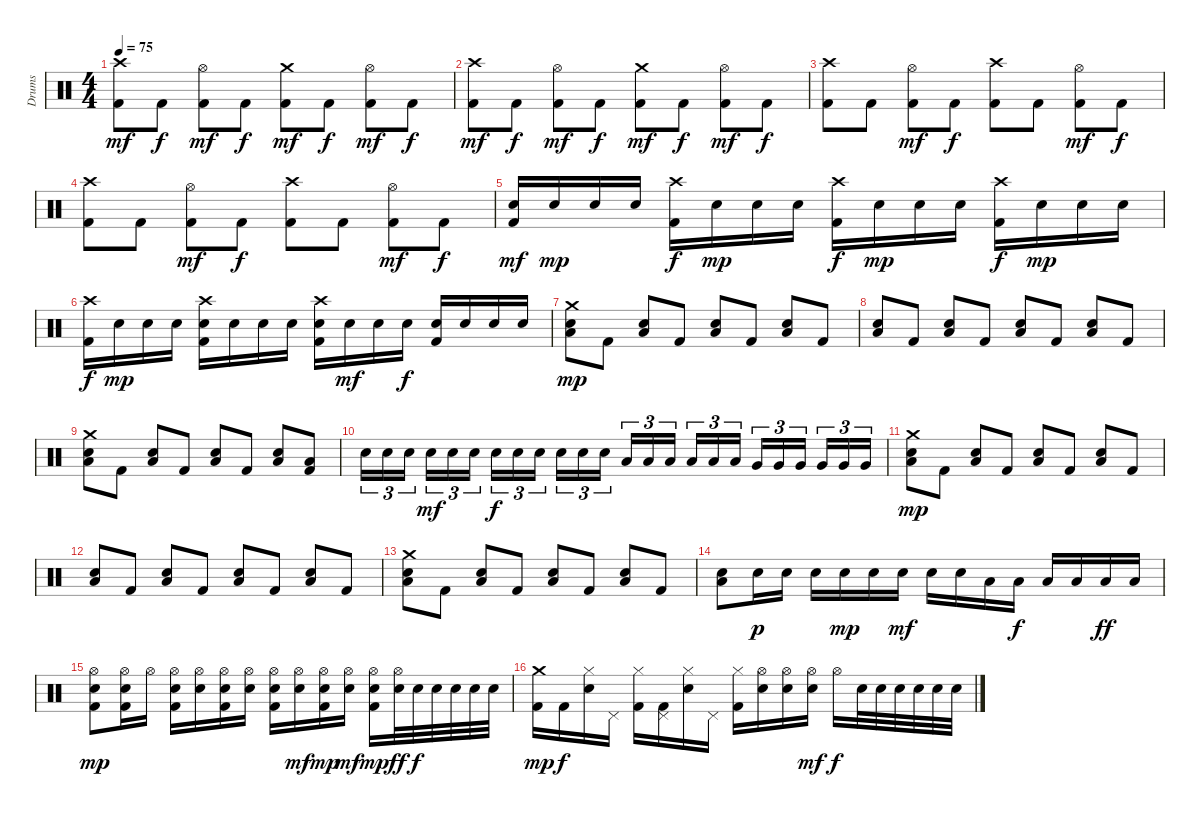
\track ("Drums" "Drums") {instrument percussion}
\staff {score}
\articulation defaults
\ts (4 4)
\tempo 75
\clef neutral
\ks c
("Crash high (hit)" "Kick (hit) 2").8{dy mf} "Kick (hit) 2".8{dy f} ("Hi-Hat (open)" "Kick (hit) 2").8{dy mf} "Kick (hit) 2".8{dy f} ("Crash medium (hit)" "Kick (hit) 2").8{dy mf} "Kick (hit) 2".8{dy f} ("Hi-Hat (open)" "Kick (hit) 2").8{dy mf} "Kick (hit) 2".8{dy f} |
("Crash high (hit)" "Kick (hit) 2").8{dy mf} "Kick (hit) 2".8{dy f} ("Hi-Hat (open)" "Kick (hit) 2").8{dy mf} "Kick (hit) 2".8{dy f} ("Crash medium (hit)" "Kick (hit) 2").8{dy mf} "Kick (hit) 2".8{dy f} ("Hi-Hat (open)" "Kick (hit) 2").8{dy mf} "Kick (hit) 2".8{dy f} |
("Crash high (hit)" "Kick (hit) 2").8 "Kick (hit) 2".8 ("Hi-Hat (open)" "Kick (hit) 2").8{dy mf} "Kick (hit) 2".8{dy f} ("Crash high (hit)" "Kick (hit) 2").8 "Kick (hit) 2".8 ("Hi-Hat (open)" "Kick (hit) 2").8{dy mf} "Kick (hit) 2".8{dy f} |
("Crash high (hit)" "Kick (hit) 2").8 "Kick (hit) 2".8 ("Hi-Hat (open)" "Kick (hit) 2").8{dy mf} "Kick (hit) 2".8{dy f} ("Crash high (hit)" "Kick (hit) 2").8 "Kick (hit) 2".8 ("Hi-Hat (open)" "Kick (hit) 2").8{dy mf} "Kick (hit) 2".8{dy f} |
("Electric Snare (hit)" "Kick (hit) 2").16{dy mf} "Electric Snare (hit)".16{dy mp} "Electric Snare (hit)".16 "Electric Snare (hit)".16 ("Crash high (hit)" "Kick (hit) 2").16{dy f} "Electric Snare (hit)".16{dy mp} "Electric Snare (hit)".16 "Electric Snare (hit)".16 ("Crash high (hit)" "Kick (hit) 2").16{dy f} "Electric Snare (hit)".16{dy mp} "Electric Snare (hit)".16 "Electric Snare (hit)".16 ("Crash high (hit)" "Kick (hit) 2").16{dy f} "Electric Snare (hit)".16{dy mp} "Electric Snare (hit)".16 "Electric Snare (hit)".16 |
("Crash high (hit)" "Kick (hit) 2").16{dy f} "Electric Snare (hit)".16{dy mp} "Electric Snare (hit)".16 "Electric Snare (hit)".16 ("Crash high (hit)" "Electric Snare (hit)" "Kick (hit) 2").16 "Electric Snare (hit)".16 "Electric Snare (hit)".16 "Electric Snare (hit)".16 ("Crash high (hit)" "Electric Snare (hit)" "Kick (hit) 2").16 "Electric Snare (hit)".16{dy mf} "Electric Snare (hit)".16 "Electric Snare (hit)".16{dy f} ("Electric Snare (hit)" "Kick (hit) 2").16 "Electric Snare (hit)".16 "Electric Snare (hit)".16 "Electric Snare (hit)".16 |
("Crash medium (hit)" "Low Floor Tom (hit)" "Electric Snare (hit)").8{dy mp} "Kick (hit) 2".8 ("Low Floor Tom (hit)" "Electric Snare (hit)").8 "Kick (hit) 2".8 ("Low Floor Tom (hit)" "Electric Snare (hit)").8 "Kick (hit) 2".8 ("Low Floor Tom (hit)" "Electric Snare (hit)").8 "Kick (hit) 2".8 |
("Low Floor Tom (hit)" "Electric Snare (hit)").8 "Kick (hit) 2".8 ("Low Floor Tom (hit)" "Electric Snare (hit)").8 "Kick (hit) 2".8 ("Low Floor Tom (hit)" "Electric Snare (hit)").8 "Kick (hit) 2".8 ("Low Floor Tom (hit)" "Electric Snare (hit)").8 "Kick (hit) 2".8 |
("Crash medium (hit)" "Low Floor Tom (hit)" "Electric Snare (hit)").8 "Kick (hit) 2".8 ("Low Floor Tom (hit)" "Electric Snare (hit)").8 "Kick (hit) 2".8 ("Low Floor Tom (hit)" "Electric Snare (hit)").8 "Kick (hit) 2".8 ("Low Floor Tom (hit)" "Electric Snare (hit)").8 ("Low Floor Tom (hit)" "Kick (hit) 2").8 |
"Electric Snare (hit)".16{tu (3 2)} "Electric Snare (hit)".16{tu (3 2)} "Electric Snare (hit)".16{tu (3 2)} "Electric Snare (hit)".16{tu (3 2) dy mf} "Electric Snare (hit)".16{tu (3 2)} "Electric Snare (hit)".16{tu (3 2)} "Electric Snare (hit)".16{tu (3 2) dy f} "Electric Snare (hit)".16{tu (3 2)} "Electric Snare (hit)".16{tu (3 2)} "Electric Snare (hit)".16{tu (3 2)} "Electric Snare (hit)".16{tu (3 2)} "Electric Snare (hit)".16{tu (3 2)} "Low Tom (hit)".16{tu (3 2)} "Low Tom (hit)".16{tu (3 2)} "Low Tom (hit)".16{tu (3 2)} "Low Tom (hit)".16{tu (3 2)} "Low Tom (hit)".16{tu (3 2)} "Low Tom (hit)".16{tu (3 2)} "Very Low Tom (hit)".16{tu (3 2)} "Very Low Tom (hit)".16{tu (3 2)} "Very Low Tom (hit)".16{tu (3 2)} "Very Low Tom (hit)".16{tu (3 2)} "Very Low Tom (hit)".16{tu (3 2)} "Very Low Tom (hit)".16{tu (3 2)} |
("Crash medium (hit)" "Low Floor Tom (hit)" "Electric Snare (hit)").8{dy mp} "Kick (hit) 2".8 ("Low Floor Tom (hit)" "Electric Snare (hit)").8 "Kick (hit) 2".8 ("Low Floor Tom (hit)" "Electric Snare (hit)").8 "Kick (hit) 2".8 ("Low Floor Tom (hit)" "Electric Snare (hit)").8 "Kick (hit) 2".8 |
("Low Floor Tom (hit)" "Electric Snare (hit)").8 "Kick (hit) 2".8 ("Low Floor Tom (hit)" "Electric Snare (hit)").8 "Kick (hit) 2".8 ("Low Floor Tom (hit)" "Electric Snare (hit)").8 "Kick (hit) 2".8 ("Low Floor Tom (hit)" "Electric Snare (hit)").8 "Kick (hit) 2".8 |
("Crash medium (hit)" "Low Floor Tom (hit)" "Electric Snare (hit)").8 "Kick (hit) 2".8 ("Low Floor Tom (hit)" "Electric Snare (hit)").8 "Kick (hit) 2".8 ("Low Floor Tom (hit)" "Electric Snare (hit)").8 "Kick (hit) 2".8 ("Low Floor Tom (hit)" "Electric Snare (hit)").8 "Kick (hit) 2".8 |
("Low Floor Tom (hit)" "Electric Snare (hit)").8 "Electric Snare (hit)".16{dy p} "Electric Snare (hit)".16 "Electric Snare (hit)".16 "Electric Snare (hit)".16{dy mp} "Electric Snare (hit)".16 "Electric Snare (hit)".16{dy mf} "Electric Snare (hit)".16 "Electric Snare (hit)".16 "Low Tom (hit)".16 "Low Tom (hit)".16{dy f} "Low Tom (hit)".16 "Low Tom (hit)".16 "Low Tom (hit)".16{dy ff} "Low Tom (hit)".16 |
("Hi-Hat (open)" "Electric Snare (hit)" "Kick (hit) 2").8{dy mp} ("Hi-Hat (open)" "Electric Snare (hit)" "Kick (hit) 2").16 "Hi-Hat (open)".16 ("Hi-Hat (open)" "Electric Snare (hit)" "Kick (hit) 2").16 ("Hi-Hat (open)" "Electric Snare (hit)").16 ("Hi-Hat (open)" "Electric Snare (hit)" "Kick (hit) 2").16 ("Hi-Hat (open)" "Electric Snare (hit)").16 ("Hi-Hat (open)" "Electric Snare (hit)" "Kick (hit) 2").16 ("Hi-Hat (open)" "Electric Snare (hit)").16{dy mf} ("Hi-Hat (open)" "Electric Snare (hit)" "Kick (hit) 2").16{dy mp} ("Hi-Hat (open)" "Electric Snare (hit)").16{dy mf} ("Hi-Hat (open)" "Electric Snare (hit)" "Kick (hit) 2").16{dy mp} ("Hi-Hat (open)" "Electric Snare (hit)").32{dy ff} "Electric Snare (hit)".32{dy f} "Electric Snare (hit)".32 "Electric Snare (hit)".32 "Electric Snare (hit)".32 "Electric Snare (hit)".32 |
("Crash medium (hit)" "Kick (hit) 2").16{dy mp} "Kick (hit) 2".16{dy f} ("Hi-Hat (closed)" "Electric Snare (hit)").16 "Pedal Hi-Hat (hit)".16 ("Hi-Hat (closed)" "Kick (hit) 2").16 ("Pedal Hi-Hat (hit)" "Kick (hit) 2").16 ("Hi-Hat (closed)" "Electric Snare (hit)").16 "Pedal Hi-Hat (hit)".16 ("Hi-Hat (closed)" "Kick (hit) 2").16 ("Hi-Hat (open)" "Electric Snare (hit)").16 ("Hi-Hat (open)" "Electric Snare (hit)").16 ("Hi-Hat (open)" "Electric Snare (hit)").16{dy mf} "Hi-Hat (open)".16{dy f} "Electric Snare (hit)".32 "Electric Snare (hit)".32 "Electric Snare (hit)".32 "Electric Snare (hit)".32 "Electric Snare (hit)".32 "Electric Snare (hit)".32
